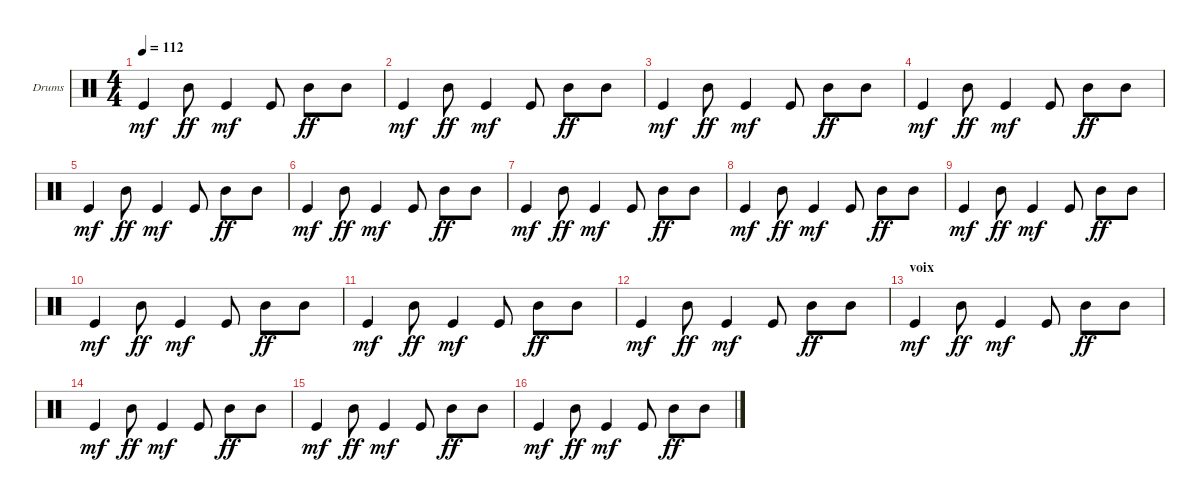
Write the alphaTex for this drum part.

\defaultSystemsLayout 4
\bracketExtendMode groupsimilarinstruments
\firstSystemTrackNameOrientation horizontal
\otherSystemsTrackNameOrientation horizontal
\track ("Drumkit" "Drums") {instrument percussion}
\staff {score}
\articulation defaults
\ts (4 4)
\tempo 112
\clef neutral
\scale
1.07945
\ks c "Kick (hit)".4{dy mf} "Mid Tom (hit)".8{dy ff} "Kick (hit)".4{dy mf} "Kick (hit)".8 "Mid Tom (hit)".8{dy ff} "Mid Tom (hit)".8
|
\scale
0.973518 "Kick (hit)".4{dy mf} "Mid Tom (hit)".8{dy ff} "Kick (hit)".4{dy mf} "Kick (hit)".8 "Mid Tom (hit)".8{dy ff} "Mid Tom (hit)".8 |
\scale
0.973518 "Kick (hit)".4{dy mf} "Mid Tom (hit)".8{dy ff} "Kick (hit)".4{dy mf} "Kick (hit)".8 "Mid Tom (hit)".8{dy ff} "Mid Tom (hit)".8 |
\scale
0.973518 "Kick (hit)".4{dy mf} "Mid Tom (hit)".8{dy ff} "Kick (hit)".4{dy mf} "Kick (hit)".8 "Mid Tom (hit)".8{dy ff} "Mid Tom (hit)".8 |
\scale
1.07945 "Kick (hit)".4{dy mf} "Mid Tom (hit)".8{dy ff} "Kick (hit)".4{dy mf} "Kick (hit)".8 "Mid Tom (hit)".8{dy ff} "Mid Tom (hit)".8 |
\scale
0.973518 "Kick (hit)".4{dy mf} "Mid Tom (hit)".8{dy ff} "Kick (hit)".4{dy mf} "Kick (hit)".8 "Mid Tom (hit)".8{dy ff} "Mid Tom (hit)".8 |
\scale
0.973518 "Kick (hit)".4{dy mf} "Mid Tom (hit)".8{dy ff} "Kick (hit)".4{dy mf} "Kick (hit)".8 "Mid Tom (hit)".8{dy ff} "Mid Tom (hit)".8 |
\scale
0.973518 "Kick (hit)".4{dy mf} "Mid Tom (hit)".8{dy ff} "Kick (hit)".4{dy mf} "Kick (hit)".8 "Mid Tom (hit)".8{dy ff} "Mid Tom (hit)".8 |
\scale
1.07945 "Kick (hit)".4{dy mf} "Mid Tom (hit)".8{dy ff} "Kick (hit)".4{dy mf} "Kick (hit)".8 "Mid Tom (hit)".8{dy ff} "Mid Tom (hit)".8 |
\scale
0.973518 "Kick (hit)".4{dy mf} "Mid Tom (hit)".8{dy ff} "Kick (hit)".4{dy mf} "Kick (hit)".8 "Mid Tom (hit)".8{dy ff} "Mid Tom (hit)".8 |
\scale
0.973518 "Kick (hit)".4{dy mf} "Mid Tom (hit)".8{dy ff} "Kick (hit)".4{dy mf} "Kick (hit)".8 "Mid Tom (hit)".8{dy ff} "Mid Tom (hit)".8 |
\scale
0.973518 "Kick (hit)".4{dy mf} "Mid Tom (hit)".8{dy ff} "Kick (hit)".4{dy mf} "Kick (hit)".8 "Mid Tom (hit)".8{dy ff} "Mid Tom (hit)".8 |
\section ("" "voix")
\scale
1.07945 "Kick (hit)".4{dy mf} "Mid Tom (hit)".8{dy ff} "Kick (hit)".4{dy mf} "Kick (hit)".8 "Mid Tom (hit)".8{dy ff} "Mid Tom (hit)".8 |
\scale
0.973518 "Kick (hit)".4{dy mf} "Mid Tom (hit)".8{dy ff} "Kick (hit)".4{dy mf} "Kick (hit)".8 "Mid Tom (hit)".8{dy ff} "Mid Tom (hit)".8 |
\scale
0.973518 "Kick (hit)".4{dy mf} "Mid Tom (hit)".8{dy ff} "Kick (hit)".4{dy mf} "Kick (hit)".8 "Mid Tom (hit)".8{dy ff} "Mid Tom (hit)".8 |
\scale
0.973518 "Kick (hit)".4{dy mf} "Mid Tom (hit)".8{dy ff} "Kick (hit)".4{dy mf} "Kick (hit)".8 "Mid Tom (hit)".8{dy ff} "Mid Tom (hit)".8
